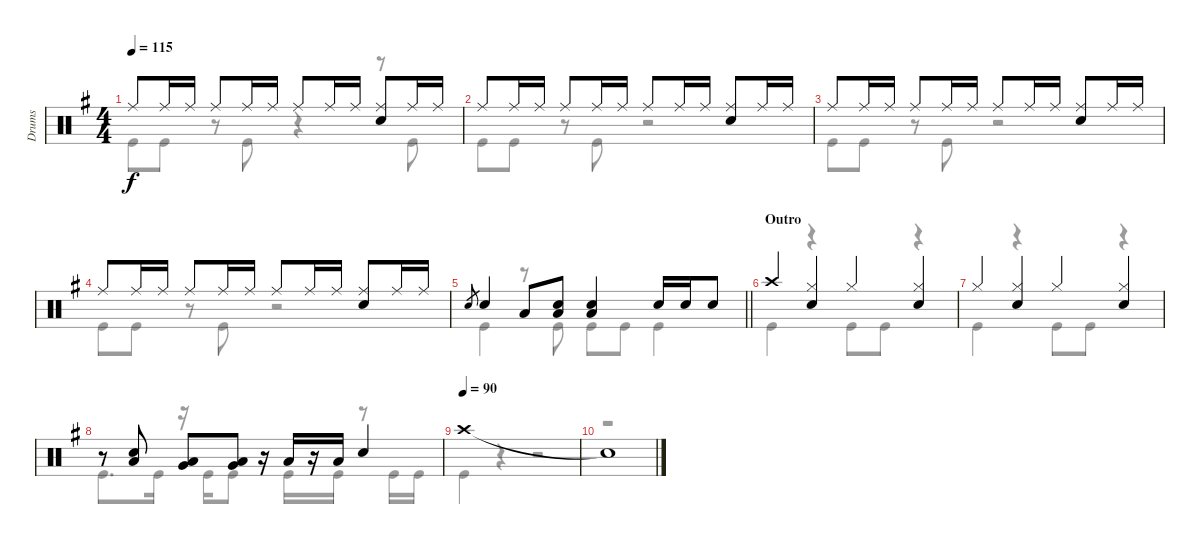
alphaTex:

\track ("Drums" "Drums") {instrument percussion}
\staff {score}
\articulation defaults
\voice
\ts (4 4)
\tempo 115
\clef neutral
\ks g "Ride (middle)".8{dy f} "Ride (middle)".16 "Ride (middle)".16 "Ride (middle)".8 "Ride (middle)".16 "Ride (middle)".16 "Ride (middle)".8 "Ride (middle)".16 "Ride (middle)".16
("Ride (middle)" "Snare (hit) 2").8 "Ride (middle)".16 "Ride (middle)".16 |
"Ride (middle)".8 "Ride (middle)".16 "Ride (middle)".16 "Ride (middle)".8 "Ride (middle)".16 "Ride (middle)".16 "Ride (middle)".8 "Ride (middle)".16 "Ride (middle)".16 ("Ride (middle)" "Snare (hit) 2").8 "Ride (middle)".16 "Ride (middle)".16 |
"Ride (middle)".8 "Ride (middle)".16 "Ride (middle)".16 "Ride (middle)".8 "Ride (middle)".16 "Ride (middle)".16 "Ride (middle)".8 "Ride (middle)".16 "Ride (middle)".16 ("Ride (middle)" "Snare (hit) 2").8 "Ride (middle)".16 "Ride (middle)".16 |
"Ride (middle)".8 "Ride (middle)".16 "Ride (middle)".16 "Ride (middle)".8 "Ride (middle)".16 "Ride (middle)".16 "Ride (middle)".8 "Ride (middle)".16 "Ride (middle)".16 ("Ride (middle)" "Snare (hit) 2").8 "Ride (middle)".16 "Ride (middle)".16 |
\barLineRight lightlight "Snare (hit) 2".8{gr} "Snare (hit) 2".4 "Low Tom (hit)".8
("Low Tom (hit)" "Snare (hit) 2").8 ("Low Tom (hit)" "Snare (hit) 2").4 "Snare (hit) 2".16 "Snare (hit) 2".16 "Snare (hit) 2".8 |
\section ("" "Outro")
"Crash high (hit)".4 ("Hi-Hat (closed)" "Snare (hit) 2").4 "Hi-Hat (closed)".4 ("Hi-Hat (closed)" "Snare (hit) 2").4 |
"Hi-Hat (closed)".4 ("Hi-Hat (closed)" "Snare (hit) 2").4 "Hi-Hat (closed)".4 ("Hi-Hat (closed)" "Snare (hit) 2").4 |
r.8 ("Snare (hit) 2" "Low Tom (hit)").8 ("Very Low Tom (hit)" "Low Tom (hit)").8 ("Low Floor Tom (hit)" "Very Low Tom (hit)").8 r.16 "Low Floor Tom (hit)".16 r.16 "Low Floor Tom (hit)".16 "Snare (hit) 2".4 |
\tempo (90)
"Crash high (hit)".1 |
"Snare (hit)"{t}.1
\voice
\clef neutral
\ottava regular
\simile none
\ks g "Kick (hit)".8{dy f} "Kick (hit)".8
r.8 "Kick (hit)".8 r.4 r.8 "Kick (hit)".8 |
"Kick (hit)".8 "Kick (hit)".8 r.8 "Kick (hit)".8 r.2 |
"Kick (hit)".8 "Kick (hit)".8 r.8 "Kick (hit)".8 r.2 |
"Kick (hit)".8 "Kick (hit)".8 r.8 "Kick (hit)".8 r.2 |
\barLineRight lightlight "Kick (hit)".4
r.8 "Kick (hit)".8 "Kick (hit)".8 "Kick (hit)".8 "Kick (hit)".4 |
"Kick (hit)".4 r.4 "Kick (hit)".8 "Kick (hit)".8 r.4 |
"Kick (hit)".4 r.4 "Kick (hit)".8 "Kick (hit)".8 r.4 |
"Kick (hit)".8{d} "Kick (hit)".16 r.16 "Kick (hit)".16 "Kick (hit)".8 r.16 "Kick (hit)".16 r.16 "Kick (hit)".16 r.8 "Kick (hit)".16 "Kick (hit)".16 |
"Kick (hit)".4 r.4 r.2 |
r.1
